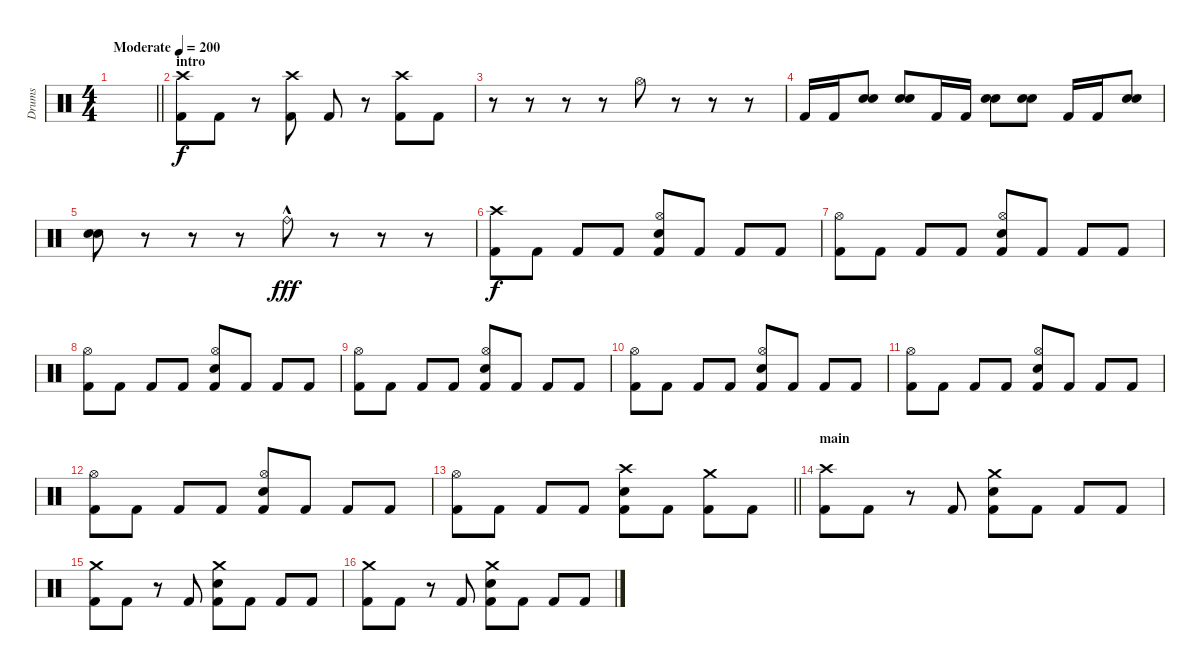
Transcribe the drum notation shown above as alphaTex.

\track ("Drums" "Drums") {instrument percussion}
\staff {score}
\articulation defaults
\ts (4 4)
\tempo (200 "Moderate")
\clef neutral
\barLineRight lightlight
\ks c
|
\section ("" "intro")
("Crash high (hit)" "Kick (hit) 2").8 "Kick (hit) 2".8 r.8{volume 0} ("Crash high (hit)" "Kick (hit) 2").8{volume 16} "Kick (hit) 2".8 r.8{volume 0} ("Crash high (hit)" "Kick (hit) 2").8{volume 16} "Kick (hit) 2".8 |
r.8{volume 0} r.8 r.8 r.8 "Hi-Hat (open)".8{volume 16} r.8 r.8 r.8 |
"Kick (hit) 2".16 "Kick (hit) 2".16 ("Electric Snare (hit)" "Electric Snare (hit)").8 ("Electric Snare (hit)" "Electric Snare (hit)").8 "Kick (hit) 2".16 "Kick (hit) 2".16 ("Electric Snare (hit)" "Electric Snare (hit)").8 ("Electric Snare (hit)" "Electric Snare (hit)").8 "Kick (hit) 2".16 "Kick (hit) 2".16 ("Electric Snare (hit)" "Electric Snare (hit)").8 |
("Electric Snare (hit)" "Electric Snare (hit)").8 r.8 r.8 r.8 "Ride (bell)"{hac}.8{dy fff} r.8 r.8 r.8 |
("Crash high (hit)" "Kick (hit) 2").8{dy f} "Kick (hit) 2".8 "Kick (hit) 2".8 "Kick (hit) 2".8 ("Hi-Hat (open)" "Electric Snare (hit)" "Kick (hit) 2").8 "Kick (hit) 2".8 "Kick (hit) 2".8 "Kick (hit) 2".8 |
("Hi-Hat (open)" "Kick (hit) 2").8 "Kick (hit) 2".8 "Kick (hit) 2".8 "Kick (hit) 2".8 ("Hi-Hat (open)" "Electric Snare (hit)" "Kick (hit) 2").8 "Kick (hit) 2".8 "Kick (hit) 2".8 "Kick (hit) 2".8 |
("Hi-Hat (open)" "Kick (hit) 2").8 "Kick (hit) 2".8 "Kick (hit) 2".8 "Kick (hit) 2".8 ("Hi-Hat (open)" "Electric Snare (hit)" "Kick (hit) 2").8 "Kick (hit) 2".8 "Kick (hit) 2".8 "Kick (hit) 2".8 |
("Hi-Hat (open)" "Kick (hit) 2").8 "Kick (hit) 2".8 "Kick (hit) 2".8 "Kick (hit) 2".8 ("Hi-Hat (open)" "Electric Snare (hit)" "Kick (hit) 2").8 "Kick (hit) 2".8 "Kick (hit) 2".8 "Kick (hit) 2".8 |
("Hi-Hat (open)" "Kick (hit) 2").8 "Kick (hit) 2".8 "Kick (hit) 2".8 "Kick (hit) 2".8 ("Hi-Hat (open)" "Electric Snare (hit)" "Kick (hit) 2").8 "Kick (hit) 2".8 "Kick (hit) 2".8 "Kick (hit) 2".8 |
("Hi-Hat (open)" "Kick (hit) 2").8 "Kick (hit) 2".8 "Kick (hit) 2".8 "Kick (hit) 2".8 ("Hi-Hat (open)" "Electric Snare (hit)" "Kick (hit) 2").8 "Kick (hit) 2".8 "Kick (hit) 2".8 "Kick (hit) 2".8 |
("Hi-Hat (open)" "Kick (hit) 2").8 "Kick (hit) 2".8 "Kick (hit) 2".8 "Kick (hit) 2".8 ("Hi-Hat (open)" "Electric Snare (hit)" "Kick (hit) 2").8 "Kick (hit) 2".8 "Kick (hit) 2".8 "Kick (hit) 2".8 |
\barLineRight lightlight
("Hi-Hat (open)" "Kick (hit) 2").8 "Kick (hit) 2".8 "Kick (hit) 2".8 "Kick (hit) 2".8 ("Crash high (hit)" "Electric Snare (hit)" "Kick (hit) 2").8 "Kick (hit) 2".8 ("Crash medium (hit)" "Kick (hit) 2").8 "Kick (hit) 2".8 |
\section ("" "main")
("Crash high (hit)" "Kick (hit) 2").8 "Kick (hit) 2".8 r.8 "Kick (hit) 2".8 ("Crash medium (hit)" "Electric Snare (hit)" "Kick (hit) 2").8 "Kick (hit) 2".8 "Kick (hit) 2".8 "Kick (hit) 2".8 |
("Crash medium (hit)" "Kick (hit) 2").8 "Kick (hit) 2".8 r.8 "Kick (hit) 2".8 ("Crash medium (hit)" "Electric Snare (hit)" "Kick (hit) 2").8 "Kick (hit) 2".8 "Kick (hit) 2".8 "Kick (hit) 2".8 |
("Crash medium (hit)" "Kick (hit) 2").8 "Kick (hit) 2".8 r.8 "Kick (hit) 2".8 ("Crash medium (hit)" "Electric Snare (hit)" "Kick (hit) 2").8 "Kick (hit) 2".8 "Kick (hit) 2".8 "Kick (hit) 2".8
